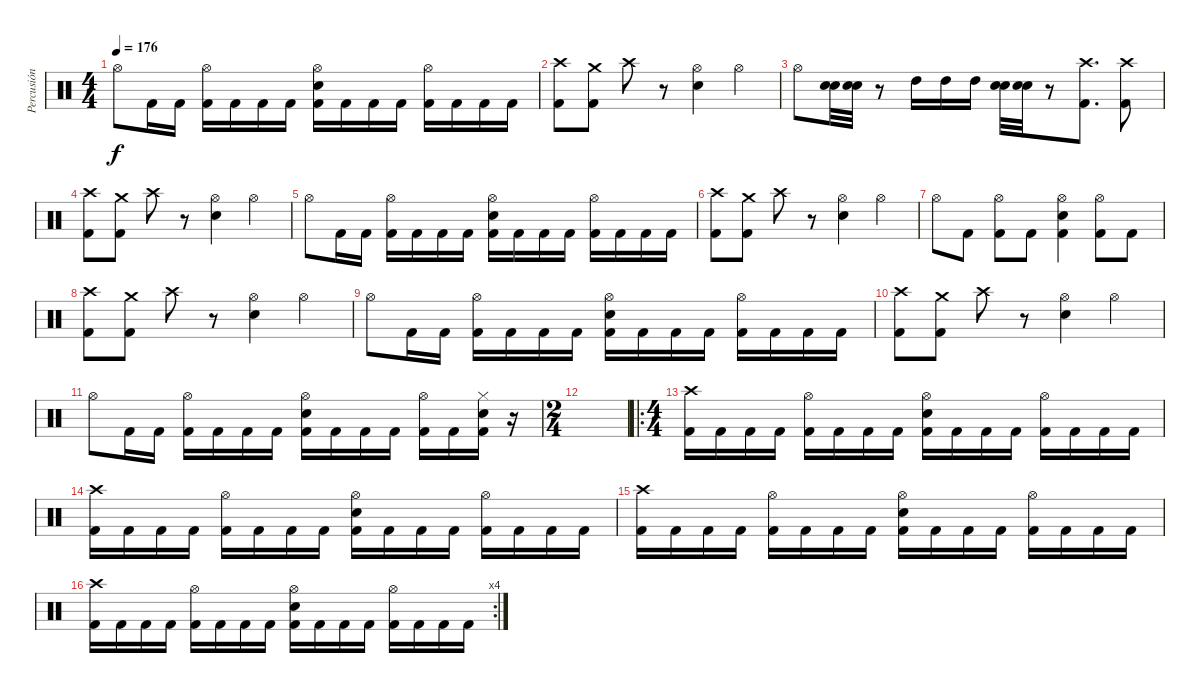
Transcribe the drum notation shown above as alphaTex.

\track ("Percusión" "Percusión") {instrument percussion}
\staff {score}
\articulation defaults
\ts (4 4)
\tempo 176
\clef neutral
\ks c "Hi-Hat (open)".8{dy f} "Kick (hit) 2".16 "Kick (hit) 2".16
("Hi-Hat (open)" "Kick (hit) 2").16 "Kick (hit) 2".16 "Kick (hit) 2".16 "Kick (hit) 2".16 ("Hi-Hat (open)" "Electric Snare (hit)" "Kick (hit) 2").16 "Kick (hit) 2".16 "Kick (hit) 2".16 "Kick (hit) 2".16 ("Hi-Hat (open)" "Kick (hit) 2").16 "Kick (hit) 2".16 "Kick (hit) 2".16 "Kick (hit) 2".16 |
("Crash high (hit)" "Kick (hit) 2").8 ("Crash medium (hit)" "Kick (hit) 2").8 "Crash high (hit)".8 r.8 ("Hi-Hat (open)" "Electric Snare (hit)").4 "Hi-Hat (open)".4 |
"Hi-Hat (open)".8 ("Electric Snare (hit)" "Electric Snare (hit)").32 ("Electric Snare (hit)" "Electric Snare (hit)").32 r.8 "High Tom (hit)".16 "High Tom (hit)".16 "High Tom (hit)".16 ("Electric Snare (hit)" "Electric Snare (hit)").32 ("Electric Snare (hit)" "Electric Snare (hit)").32 r.8 ("Crash high (hit)" "Kick (hit) 2").8{d} ("Crash high (hit)" "Kick (hit) 2").8 |
("Crash high (hit)" "Kick (hit) 2").8 ("Crash medium (hit)" "Kick (hit) 2").8 "Crash high (hit)".8 r.8 ("Hi-Hat (open)" "Electric Snare (hit)").4 "Hi-Hat (open)".4 |
"Hi-Hat (open)".8 "Kick (hit) 2".16 "Kick (hit) 2".16 ("Hi-Hat (open)" "Kick (hit) 2").16 "Kick (hit) 2".16 "Kick (hit) 2".16 "Kick (hit) 2".16 ("Hi-Hat (open)" "Electric Snare (hit)" "Kick (hit) 2").16 "Kick (hit) 2".16 "Kick (hit) 2".16 "Kick (hit) 2".16 ("Hi-Hat (open)" "Kick (hit) 2").16 "Kick (hit) 2".16 "Kick (hit) 2".16 "Kick (hit) 2".16 |
("Crash high (hit)" "Kick (hit) 2").8 ("Crash medium (hit)" "Kick (hit) 2").8 "Crash high (hit)".8 r.8 ("Hi-Hat (open)" "Electric Snare (hit)").4 "Hi-Hat (open)".4 |
"Hi-Hat (open)".8 "Kick (hit) 2".8 ("Hi-Hat (open)" "Kick (hit) 2").8 "Kick (hit) 2".8 ("Hi-Hat (open)" "Electric Snare (hit)" "Kick (hit) 2").4 ("Hi-Hat (open)" "Kick (hit) 2").8 "Kick (hit) 2".8 |
("Crash high (hit)" "Kick (hit) 2").8 ("Crash medium (hit)" "Kick (hit) 2").8 "Crash high (hit)".8 r.8 ("Hi-Hat (open)" "Electric Snare (hit)").4 "Hi-Hat (open)".4 |
"Hi-Hat (open)".8 "Kick (hit) 2".16 "Kick (hit) 2".16 ("Hi-Hat (open)" "Kick (hit) 2").16 "Kick (hit) 2".16 "Kick (hit) 2".16 "Kick (hit) 2".16 ("Hi-Hat (open)" "Electric Snare (hit)" "Kick (hit) 2").16 "Kick (hit) 2".16 "Kick (hit) 2".16 "Kick (hit) 2".16 ("Hi-Hat (open)" "Kick (hit) 2").16 "Kick (hit) 2".16 "Kick (hit) 2".16 "Kick (hit) 2".16 |
("Crash high (hit)" "Kick (hit) 2").8 ("Crash medium (hit)" "Kick (hit) 2").8 "Crash high (hit)".8 r.8 ("Hi-Hat (open)" "Electric Snare (hit)").4 "Hi-Hat (open)".4 |
"Hi-Hat (open)".8 "Kick (hit) 2".16 "Kick (hit) 2".16 ("Hi-Hat (open)" "Kick (hit) 2").16 "Kick (hit) 2".16 "Kick (hit) 2".16 "Kick (hit) 2".16 ("Hi-Hat (open)" "Electric Snare (hit)" "Kick (hit) 2").16 "Kick (hit) 2".16 "Kick (hit) 2".16 "Kick (hit) 2".16 ("Hi-Hat (open)" "Kick (hit) 2").16 "Kick (hit) 2".16 ("Hi-Hat (closed)" "Electric Snare (hit)" "Kick (hit) 2").16 r.16 |
\ts (2 4)
|
\ro
\ts (4 4)
("Crash high (hit)" "Kick (hit) 2").16 "Kick (hit) 2".16 "Kick (hit) 2".16 "Kick (hit) 2".16 ("Hi-Hat (open)" "Kick (hit) 2").16 "Kick (hit) 2".16 "Kick (hit) 2".16 "Kick (hit) 2".16 ("Hi-Hat (open)" "Electric Snare (hit)" "Kick (hit) 2").16 "Kick (hit) 2".16 "Kick (hit) 2".16 "Kick (hit) 2".16 ("Hi-Hat (open)" "Kick (hit) 2").16 "Kick (hit) 2".16 "Kick (hit) 2".16 "Kick (hit) 2".16 |
("Crash high (hit)" "Kick (hit) 2").16 "Kick (hit) 2".16 "Kick (hit) 2".16 "Kick (hit) 2".16 ("Hi-Hat (open)" "Kick (hit) 2").16 "Kick (hit) 2".16 "Kick (hit) 2".16 "Kick (hit) 2".16 ("Hi-Hat (open)" "Electric Snare (hit)" "Kick (hit) 2").16 "Kick (hit) 2".16 "Kick (hit) 2".16 "Kick (hit) 2".16 ("Hi-Hat (open)" "Kick (hit) 2").16 "Kick (hit) 2".16 "Kick (hit) 2".16 "Kick (hit) 2".16 |
("Crash high (hit)" "Kick (hit) 2").16 "Kick (hit) 2".16 "Kick (hit) 2".16 "Kick (hit) 2".16 ("Hi-Hat (open)" "Kick (hit) 2").16 "Kick (hit) 2".16 "Kick (hit) 2".16 "Kick (hit) 2".16 ("Hi-Hat (open)" "Electric Snare (hit)" "Kick (hit) 2").16 "Kick (hit) 2".16 "Kick (hit) 2".16 "Kick (hit) 2".16 ("Hi-Hat (open)" "Kick (hit) 2").16 "Kick (hit) 2".16 "Kick (hit) 2".16 "Kick (hit) 2".16 |
\rc 4
("Crash high (hit)" "Kick (hit) 2").16 "Kick (hit) 2".16 "Kick (hit) 2".16 "Kick (hit) 2".16 ("Hi-Hat (open)" "Kick (hit) 2").16 "Kick (hit) 2".16 "Kick (hit) 2".16 "Kick (hit) 2".16 ("Hi-Hat (open)" "Electric Snare (hit)" "Kick (hit) 2").16 "Kick (hit) 2".16 "Kick (hit) 2".16 "Kick (hit) 2".16 ("Hi-Hat (open)" "Kick (hit) 2").16 "Kick (hit) 2".16 "Kick (hit) 2".16 "Kick (hit) 2".16
